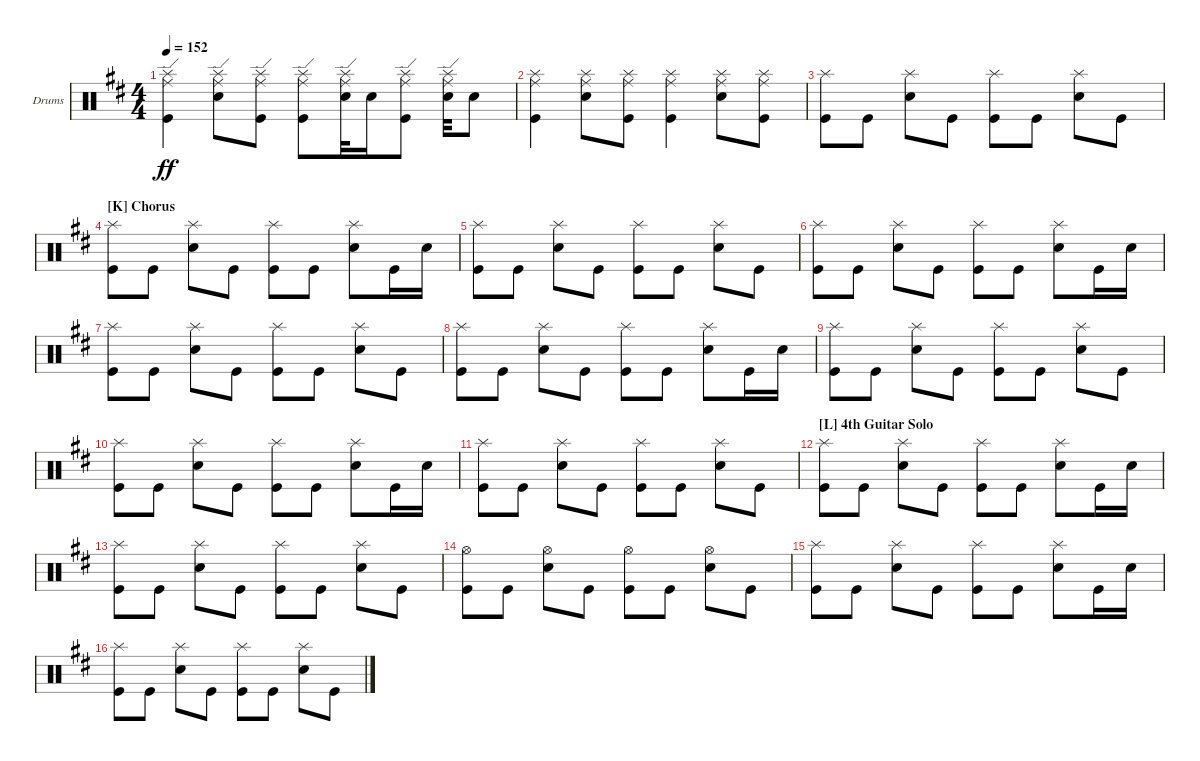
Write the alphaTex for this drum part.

\defaultSystemsLayout 4
\bracketExtendMode groupsimilarinstruments
\firstSystemTrackNameOrientation horizontal
\otherSystemsTrackNameOrientation horizontal
\track ("Drumkit" "Drums") {instrument percussion}
\staff {score}
\articulation defaults
\ts (4 4)
\tempo 152
\clef neutral
\ks d
("Kick (hit)" "Splash (hit)" "Ride (edge)").4{dy ff} ("Snare (hit) 2" "Splash (hit)" "Ride (edge)").8 ("Kick (hit)" "Splash (hit)" "Ride (edge)").8 ("Kick (hit)" "Splash (hit)" "Ride (edge)").8 ("Snare (hit) 2" "Splash (hit)" "Ride (edge)").32 "Snare (hit) 2".16 ("Kick (hit)" "Splash (hit)" "Ride (edge)").8 ("Snare (hit) 2" "Splash (hit)" "Ride (edge)").32 "Snare (hit) 2".8 |
("Kick (hit)" "Splash (hit)" "Ride (middle)").4 ("Snare (hit) 2" "Splash (hit)" "Ride (middle)").8 ("Kick (hit)" "Splash (hit)" "Ride (middle)").8 ("Kick (hit)" "Splash (hit)" "Ride (middle)").4 ("Snare (hit) 2" "Splash (hit)" "Ride (middle)").8 ("Kick (hit)" "Splash (hit)" "Ride (middle)").8 |
("Kick (hit)" "Splash (hit)").8 "Kick (hit)".8 ("Snare (hit) 2" "Splash (hit)").8 "Kick (hit)".8 ("Kick (hit)" "Splash (hit)").8 "Kick (hit)".8 ("Snare (hit) 2" "Splash (hit)").8 "Kick (hit)".8 |
\section ("K" "Chorus")
("Kick (hit)" "Splash (hit)").8 "Kick (hit)".8 ("Snare (hit) 2" "Splash (hit)").8 "Kick (hit)".8 ("Kick (hit)" "Splash (hit)").8 "Kick (hit)".8 ("Snare (hit) 2" "Splash (hit)").8 "Kick (hit)".16 "Snare (hit) 2".16 |
("Kick (hit)" "Splash (hit)").8 "Kick (hit)".8 ("Snare (hit) 2" "Splash (hit)").8 "Kick (hit)".8 ("Kick (hit)" "Splash (hit)").8 "Kick (hit)".8 ("Snare (hit) 2" "Splash (hit)").8 "Kick (hit)".8 |
("Kick (hit)" "Splash (hit)").8 "Kick (hit)".8 ("Snare (hit) 2" "Splash (hit)").8 "Kick (hit)".8 ("Kick (hit)" "Splash (hit)").8 "Kick (hit)".8 ("Snare (hit) 2" "Splash (hit)").8 "Kick (hit)".16 "Snare (hit) 2".16 |
("Kick (hit)" "Splash (hit)").8 "Kick (hit)".8 ("Snare (hit) 2" "Splash (hit)").8 "Kick (hit)".8 ("Kick (hit)" "Splash (hit)").8 "Kick (hit)".8 ("Snare (hit) 2" "Splash (hit)").8 "Kick (hit)".8 |
("Kick (hit)" "Splash (hit)").8 "Kick (hit)".8 ("Snare (hit) 2" "Splash (hit)").8 "Kick (hit)".8 ("Kick (hit)" "Splash (hit)").8 "Kick (hit)".8 ("Snare (hit) 2" "Splash (hit)").8 "Kick (hit)".16 "Snare (hit) 2".16 |
("Kick (hit)" "Splash (hit)").8 "Kick (hit)".8 ("Snare (hit) 2" "Splash (hit)").8 "Kick (hit)".8 ("Kick (hit)" "Splash (hit)").8 "Kick (hit)".8 ("Snare (hit) 2" "Splash (hit)").8 "Kick (hit)".8 |
("Kick (hit)" "Splash (hit)").8 "Kick (hit)".8 ("Snare (hit) 2" "Splash (hit)").8 "Kick (hit)".8 ("Kick (hit)" "Splash (hit)").8 "Kick (hit)".8 ("Snare (hit) 2" "Splash (hit)").8 "Kick (hit)".16 "Snare (hit) 2".16 |
("Kick (hit)" "Splash (hit)").8 "Kick (hit)".8 ("Snare (hit) 2" "Splash (hit)").8 "Kick (hit)".8 ("Kick (hit)" "Splash (hit)").8 "Kick (hit)".8 ("Snare (hit) 2" "Splash (hit)").8 "Kick (hit)".8 |
\section ("L" "4th Guitar Solo")
("Kick (hit)" "Splash (hit)").8 "Kick (hit)".8 ("Snare (hit) 2" "Splash (hit)").8 "Kick (hit)".8 ("Kick (hit)" "Splash (hit)").8 "Kick (hit)".8 ("Snare (hit) 2" "Splash (hit)").8 "Kick (hit)".16 "Snare (hit) 2".16 |
("Kick (hit)" "Splash (hit)").8 "Kick (hit)".8 ("Snare (hit) 2" "Splash (hit)").8 "Kick (hit)".8 ("Kick (hit)" "Splash (hit)").8 "Kick (hit)".8 ("Snare (hit) 2" "Splash (hit)").8 "Kick (hit)".8 |
("Kick (hit)" "Hi-Hat (open)").8 "Kick (hit)".8 ("Snare (hit) 2" "Hi-Hat (open)").8 "Kick (hit)".8 ("Kick (hit)" "Hi-Hat (open)").8 "Kick (hit)".8 ("Snare (hit) 2" "Hi-Hat (open)").8 "Kick (hit)".8 |
("Kick (hit)" "Splash (hit)").8 "Kick (hit)".8 ("Snare (hit) 2" "Splash (hit)").8 "Kick (hit)".8 ("Kick (hit)" "Splash (hit)").8 "Kick (hit)".8 ("Snare (hit) 2" "Splash (hit)").8 "Kick (hit)".16 "Snare (hit) 2".16 |
("Kick (hit)" "Splash (hit)").8 "Kick (hit)".8 ("Snare (hit) 2" "Splash (hit)").8 "Kick (hit)".8 ("Kick (hit)" "Splash (hit)").8 "Kick (hit)".8 ("Snare (hit) 2" "Splash (hit)").8 "Kick (hit)".8
